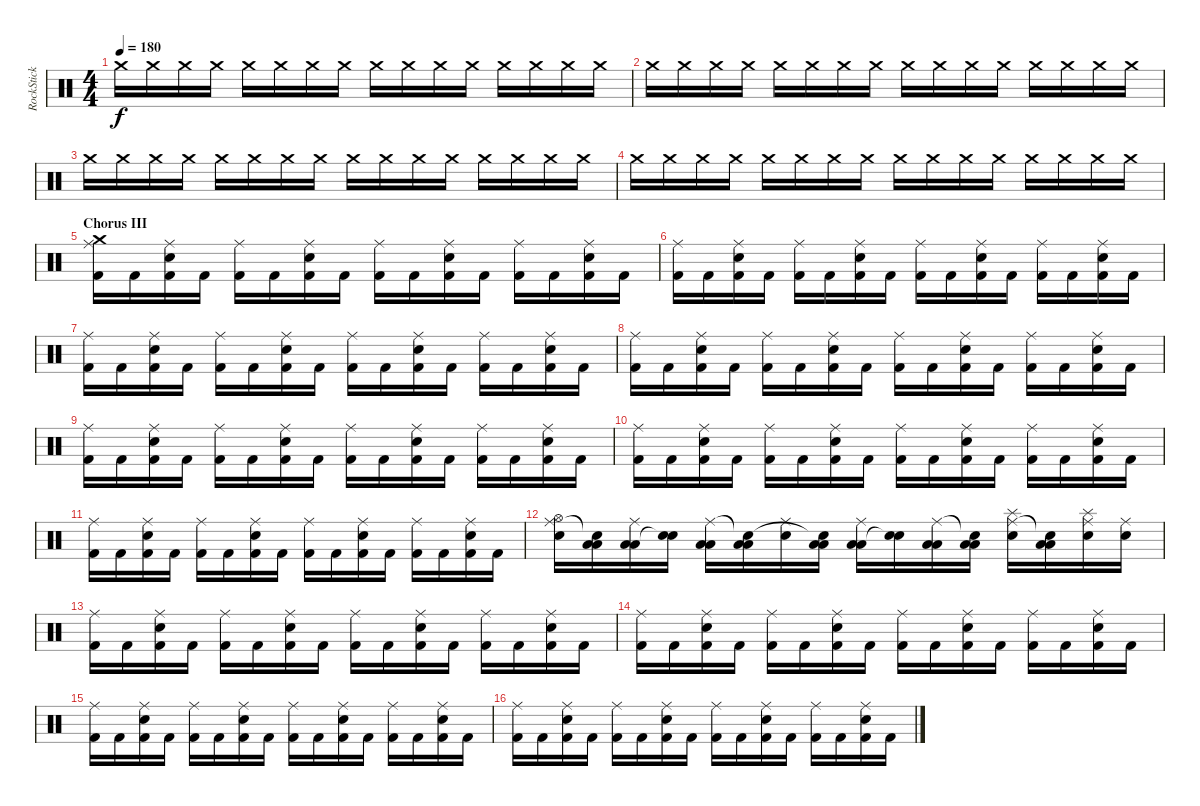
\track ("RockStick" "RockStick") {instrument percussion}
\staff {score}
\articulation defaults
\ts (4 4)
\tempo 180
\clef neutral
\ks c "Crash medium (hit)".16{dy f} "Crash medium (hit)".16 "Crash medium (hit)".16 "Crash medium (hit)".16 "Crash medium (hit)".16 "Crash medium (hit)".16 "Crash medium (hit)".16 "Crash medium (hit)".16 "Crash medium (hit)".16 "Crash medium (hit)".16 "Crash medium (hit)".16 "Crash medium (hit)".16 "Crash medium (hit)".16 "Crash medium (hit)".16 "Crash medium (hit)".16 "Crash medium (hit)".16
|
"Crash medium (hit)".16{volume 0} "Crash medium (hit)".16 "Crash medium (hit)".16 "Crash medium (hit)".16 "Crash medium (hit)".16 "Crash medium (hit)".16 "Crash medium (hit)".16 "Crash medium (hit)".16 "Crash medium (hit)".16 "Crash medium (hit)".16 "Crash medium (hit)".16 "Crash medium (hit)".16 "Crash medium (hit)".16 "Crash medium (hit)".16 "Crash medium (hit)".16 "Crash medium (hit)".16 |
"Crash medium (hit)".16{volume 14} "Crash medium (hit)".16 "Crash medium (hit)".16 "Crash medium (hit)".16 "Crash medium (hit)".16 "Crash medium (hit)".16 "Crash medium (hit)".16 "Crash medium (hit)".16 "Crash medium (hit)".16 "Crash medium (hit)".16 "Crash medium (hit)".16 "Crash medium (hit)".16 "Crash medium (hit)".16 "Crash medium (hit)".16 "Crash medium (hit)".16 "Crash medium (hit)".16 |
"Crash medium (hit)".16 "Crash medium (hit)".16 "Crash medium (hit)".16 "Crash medium (hit)".16 "Crash medium (hit)".16 "Crash medium (hit)".16 "Crash medium (hit)".16 "Crash medium (hit)".16 "Crash medium (hit)".16 "Crash medium (hit)".16 "Crash medium (hit)".16 "Crash medium (hit)".16 "Crash medium (hit)".16 "Crash medium (hit)".16 "Crash medium (hit)".16 "Crash medium (hit)".16 |
\section ("" "Chorus III")
("Crash medium (hit)" "Kick (hit) 2" "Ride (middle)").16 "Kick (hit) 2".16 ("Electric Snare (hit)" "Kick (hit) 2" "Ride (middle)").16 "Kick (hit) 2".16 ("Kick (hit) 2" "Ride (middle)").16 "Kick (hit) 2".16 ("Electric Snare (hit)" "Kick (hit) 2" "Ride (middle)").16 "Kick (hit) 2".16 ("Kick (hit) 2" "Ride (middle)").16 "Kick (hit) 2".16 ("Electric Snare (hit)" "Kick (hit) 2" "Ride (middle)").16 "Kick (hit) 2".16 ("Kick (hit) 2" "Ride (middle)").16 "Kick (hit) 2".16 ("Electric Snare (hit)" "Kick (hit) 2" "Ride (middle)").16 "Kick (hit) 2".16 |
("Kick (hit) 2" "Ride (middle)").16 "Kick (hit) 2".16 ("Electric Snare (hit)" "Kick (hit) 2" "Ride (middle)").16 "Kick (hit) 2".16 ("Kick (hit) 2" "Ride (middle)").16 "Kick (hit) 2".16 ("Electric Snare (hit)" "Kick (hit) 2" "Ride (middle)").16 "Kick (hit) 2".16 ("Kick (hit) 2" "Ride (middle)").16 "Kick (hit) 2".16 ("Electric Snare (hit)" "Kick (hit) 2" "Ride (middle)").16 "Kick (hit) 2".16 ("Kick (hit) 2" "Ride (middle)").16 "Kick (hit) 2".16 ("Electric Snare (hit)" "Kick (hit) 2" "Ride (middle)").16 "Kick (hit) 2".16 |
("Kick (hit) 2" "Ride (middle)").16 "Kick (hit) 2".16 ("Electric Snare (hit)" "Kick (hit) 2" "Ride (middle)").16 "Kick (hit) 2".16 ("Kick (hit) 2" "Ride (middle)").16 "Kick (hit) 2".16 ("Electric Snare (hit)" "Kick (hit) 2" "Ride (middle)").16 "Kick (hit) 2".16 ("Kick (hit) 2" "Ride (middle)").16 "Kick (hit) 2".16 ("Electric Snare (hit)" "Kick (hit) 2" "Ride (middle)").16 "Kick (hit) 2".16 ("Kick (hit) 2" "Ride (middle)").16 "Kick (hit) 2".16 ("Electric Snare (hit)" "Kick (hit) 2" "Ride (middle)").16 "Kick (hit) 2".16 |
("Kick (hit) 2" "Ride (middle)").16 "Kick (hit) 2".16 ("Electric Snare (hit)" "Kick (hit) 2" "Ride (middle)").16 "Kick (hit) 2".16 ("Kick (hit) 2" "Ride (middle)").16 "Kick (hit) 2".16 ("Electric Snare (hit)" "Kick (hit) 2" "Ride (middle)").16 "Kick (hit) 2".16 ("Kick (hit) 2" "Ride (middle)").16 "Kick (hit) 2".16 ("Electric Snare (hit)" "Kick (hit) 2" "Ride (middle)").16 "Kick (hit) 2".16 ("Kick (hit) 2" "Ride (middle)").16 "Kick (hit) 2".16 ("Electric Snare (hit)" "Kick (hit) 2" "Ride (middle)").16 "Kick (hit) 2".16 |
("Kick (hit) 2" "Ride (middle)").16 "Kick (hit) 2".16 ("Electric Snare (hit)" "Kick (hit) 2" "Ride (middle)").16 "Kick (hit) 2".16 ("Kick (hit) 2" "Ride (middle)").16 "Kick (hit) 2".16 ("Electric Snare (hit)" "Kick (hit) 2" "Ride (middle)").16 "Kick (hit) 2".16 ("Kick (hit) 2" "Ride (middle)").16 "Kick (hit) 2".16 ("Electric Snare (hit)" "Kick (hit) 2" "Ride (middle)").16 "Kick (hit) 2".16 ("Kick (hit) 2" "Ride (middle)").16 "Kick (hit) 2".16 ("Electric Snare (hit)" "Kick (hit) 2" "Ride (middle)").16 "Kick (hit) 2".16 |
("Kick (hit) 2" "Ride (middle)").16 "Kick (hit) 2".16 ("Electric Snare (hit)" "Kick (hit) 2" "Ride (middle)").16 "Kick (hit) 2".16 ("Kick (hit) 2" "Ride (middle)").16 "Kick (hit) 2".16 ("Electric Snare (hit)" "Kick (hit) 2" "Ride (middle)").16 "Kick (hit) 2".16 ("Kick (hit) 2" "Ride (middle)").16 "Kick (hit) 2".16 ("Electric Snare (hit)" "Kick (hit) 2" "Ride (middle)").16 "Kick (hit) 2".16 ("Kick (hit) 2" "Ride (middle)").16 "Kick (hit) 2".16 ("Electric Snare (hit)" "Kick (hit) 2" "Ride (middle)").16 "Kick (hit) 2".16 |
("Kick (hit) 2" "Ride (middle)").16 "Kick (hit) 2".16 ("Electric Snare (hit)" "Kick (hit) 2" "Ride (middle)").16 "Kick (hit) 2".16 ("Kick (hit) 2" "Ride (middle)").16 "Kick (hit) 2".16 ("Electric Snare (hit)" "Kick (hit) 2" "Ride (middle)").16 "Kick (hit) 2".16 ("Kick (hit) 2" "Ride (middle)").16 "Kick (hit) 2".16 ("Electric Snare (hit)" "Kick (hit) 2" "Ride (middle)").16 "Kick (hit) 2".16 ("Kick (hit) 2" "Ride (middle)").16 "Kick (hit) 2".16 ("Electric Snare (hit)" "Kick (hit) 2" "Ride (middle)").16 "Kick (hit) 2".16 |
("Hi-Hat (open)" "Electric Snare (hit)" "Ride (middle)").16 ("Low Tom (hit)" "Low Tom (hit)" "Snare (hit)"{t}).16 ("Low Tom (hit)" "Low Tom (hit)" "Ride (middle)").16 ("Electric Snare (hit)" "Snare (hit) 2"{t}).16 ("Low Tom (hit)" "Low Tom (hit)" "Ride (middle)").16 ("Low Tom (hit)" "Low Tom (hit)" "Snare (hit)"{t}).16 ("Electric Snare (hit)" "Ride (middle)").16 ("Low Tom (hit)" "Low Tom (hit)" "Snare (hit)"{t}).16 ("Low Tom (hit)" "Low Tom (hit)" "Ride (middle)").16 ("Electric Snare (hit)" "Snare (hit)"{t}).16 ("Low Tom (hit)" "Low Tom (hit)" "Ride (middle)").16 ("Low Tom (hit)" "Low Tom (hit)" "Snare (hit)"{t}).16 ("Splash (hit)" "Electric Snare (hit)" "Ride (middle)").16 ("Low Tom (hit)" "Low Tom (hit)" "Snare (hit)"{t}).16 ("Splash (hit)" "Electric Snare (hit)" "Ride (middle)").16 ("Electric Snare (hit)" "Ride (middle)").16 |
("Kick (hit) 2" "Ride (middle)").16 "Kick (hit) 2".16 ("Electric Snare (hit)" "Kick (hit) 2" "Ride (middle)").16 "Kick (hit) 2".16 ("Kick (hit) 2" "Ride (middle)").16 "Kick (hit) 2".16 ("Electric Snare (hit)" "Kick (hit) 2" "Ride (middle)").16 "Kick (hit) 2".16 ("Kick (hit) 2" "Ride (middle)").16 "Kick (hit) 2".16 ("Electric Snare (hit)" "Kick (hit) 2" "Ride (middle)").16 "Kick (hit) 2".16 ("Kick (hit) 2" "Ride (middle)").16 "Kick (hit) 2".16 ("Electric Snare (hit)" "Kick (hit) 2" "Ride (middle)").16 "Kick (hit) 2".16 |
("Kick (hit) 2" "Ride (middle)").16 "Kick (hit) 2".16 ("Electric Snare (hit)" "Kick (hit) 2" "Ride (middle)").16 "Kick (hit) 2".16 ("Kick (hit) 2" "Ride (middle)").16 "Kick (hit) 2".16 ("Electric Snare (hit)" "Kick (hit) 2" "Ride (middle)").16 "Kick (hit) 2".16 ("Kick (hit) 2" "Ride (middle)").16 "Kick (hit) 2".16 ("Electric Snare (hit)" "Kick (hit) 2" "Ride (middle)").16 "Kick (hit) 2".16 ("Kick (hit) 2" "Ride (middle)").16 "Kick (hit) 2".16 ("Electric Snare (hit)" "Kick (hit) 2" "Ride (middle)").16 "Kick (hit) 2".16 |
("Kick (hit) 2" "Ride (middle)").16 "Kick (hit) 2".16 ("Electric Snare (hit)" "Kick (hit) 2" "Ride (middle)").16 "Kick (hit) 2".16 ("Kick (hit) 2" "Ride (middle)").16 "Kick (hit) 2".16 ("Electric Snare (hit)" "Kick (hit) 2" "Ride (middle)").16 "Kick (hit) 2".16 ("Kick (hit) 2" "Ride (middle)").16 "Kick (hit) 2".16 ("Electric Snare (hit)" "Kick (hit) 2" "Ride (middle)").16 "Kick (hit) 2".16 ("Kick (hit) 2" "Ride (middle)").16 "Kick (hit) 2".16 ("Electric Snare (hit)" "Kick (hit) 2" "Ride (middle)").16 "Kick (hit) 2".16 |
("Kick (hit) 2" "Ride (middle)").16 "Kick (hit) 2".16 ("Electric Snare (hit)" "Kick (hit) 2" "Ride (middle)").16 "Kick (hit) 2".16 ("Kick (hit) 2" "Ride (middle)").16 "Kick (hit) 2".16 ("Electric Snare (hit)" "Kick (hit) 2" "Ride (middle)").16 "Kick (hit) 2".16 ("Kick (hit) 2" "Ride (middle)").16 "Kick (hit) 2".16 ("Electric Snare (hit)" "Kick (hit) 2" "Ride (middle)").16 "Kick (hit) 2".16 ("Kick (hit) 2" "Ride (middle)").16 "Kick (hit) 2".16 ("Electric Snare (hit)" "Kick (hit) 2" "Ride (middle)").16 "Kick (hit) 2".16
